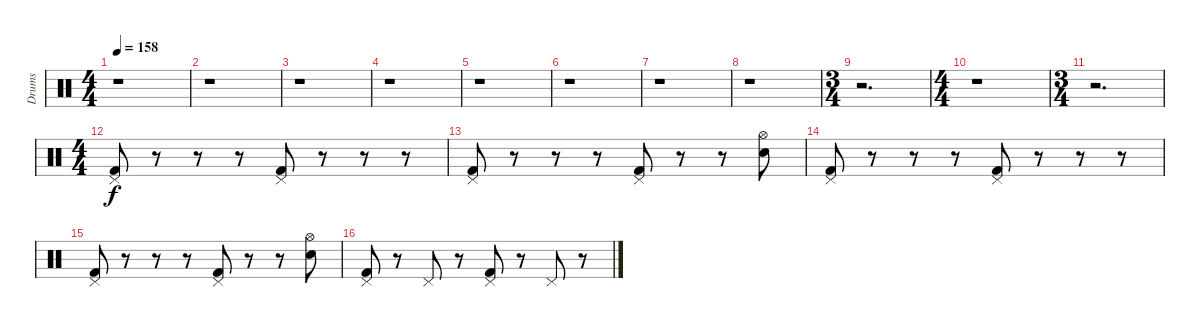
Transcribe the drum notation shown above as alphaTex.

\track ("Drums" "Drums") {instrument percussion}
\staff {score}
\articulation defaults
\ts (4 4)
\tempo 158
\clef neutral
\ks c
r.1{dy f} |
r.1 |
r.1 |
r.1 |
r.1 |
r.1 |
r.1 |
r.1 |
\ts (3 4)
r.2{d} |
\ts (4 4)
r.1 |
\ts (3 4)
r.2{d} |
\ts (4 4)
("Pedal Hi-Hat (hit)" "Kick (hit) 2").8 r.8 r.8 r.8 ("Pedal Hi-Hat (hit)" "Kick (hit) 2").8 r.8 r.8 r.8 |
("Pedal Hi-Hat (hit)" "Kick (hit) 2").8 r.8 r.8 r.8 ("Pedal Hi-Hat (hit)" "Kick (hit) 2").8 r.8 r.8 ("Hi-Hat (open)" "Snare (hit) 2").8 |
("Pedal Hi-Hat (hit)" "Kick (hit) 2").8 r.8 r.8 r.8 ("Pedal Hi-Hat (hit)" "Kick (hit) 2").8 r.8 r.8 r.8 |
("Pedal Hi-Hat (hit)" "Kick (hit) 2").8 r.8 r.8 r.8 ("Pedal Hi-Hat (hit)" "Kick (hit) 2").8 r.8 r.8 ("Hi-Hat (open)" "Snare (hit) 2").8 |
("Pedal Hi-Hat (hit)" "Kick (hit) 2").8 r.8 "Pedal Hi-Hat (hit)".8 r.8 ("Pedal Hi-Hat (hit)" "Kick (hit) 2").8 r.8 "Pedal Hi-Hat (hit)".8 r.8
